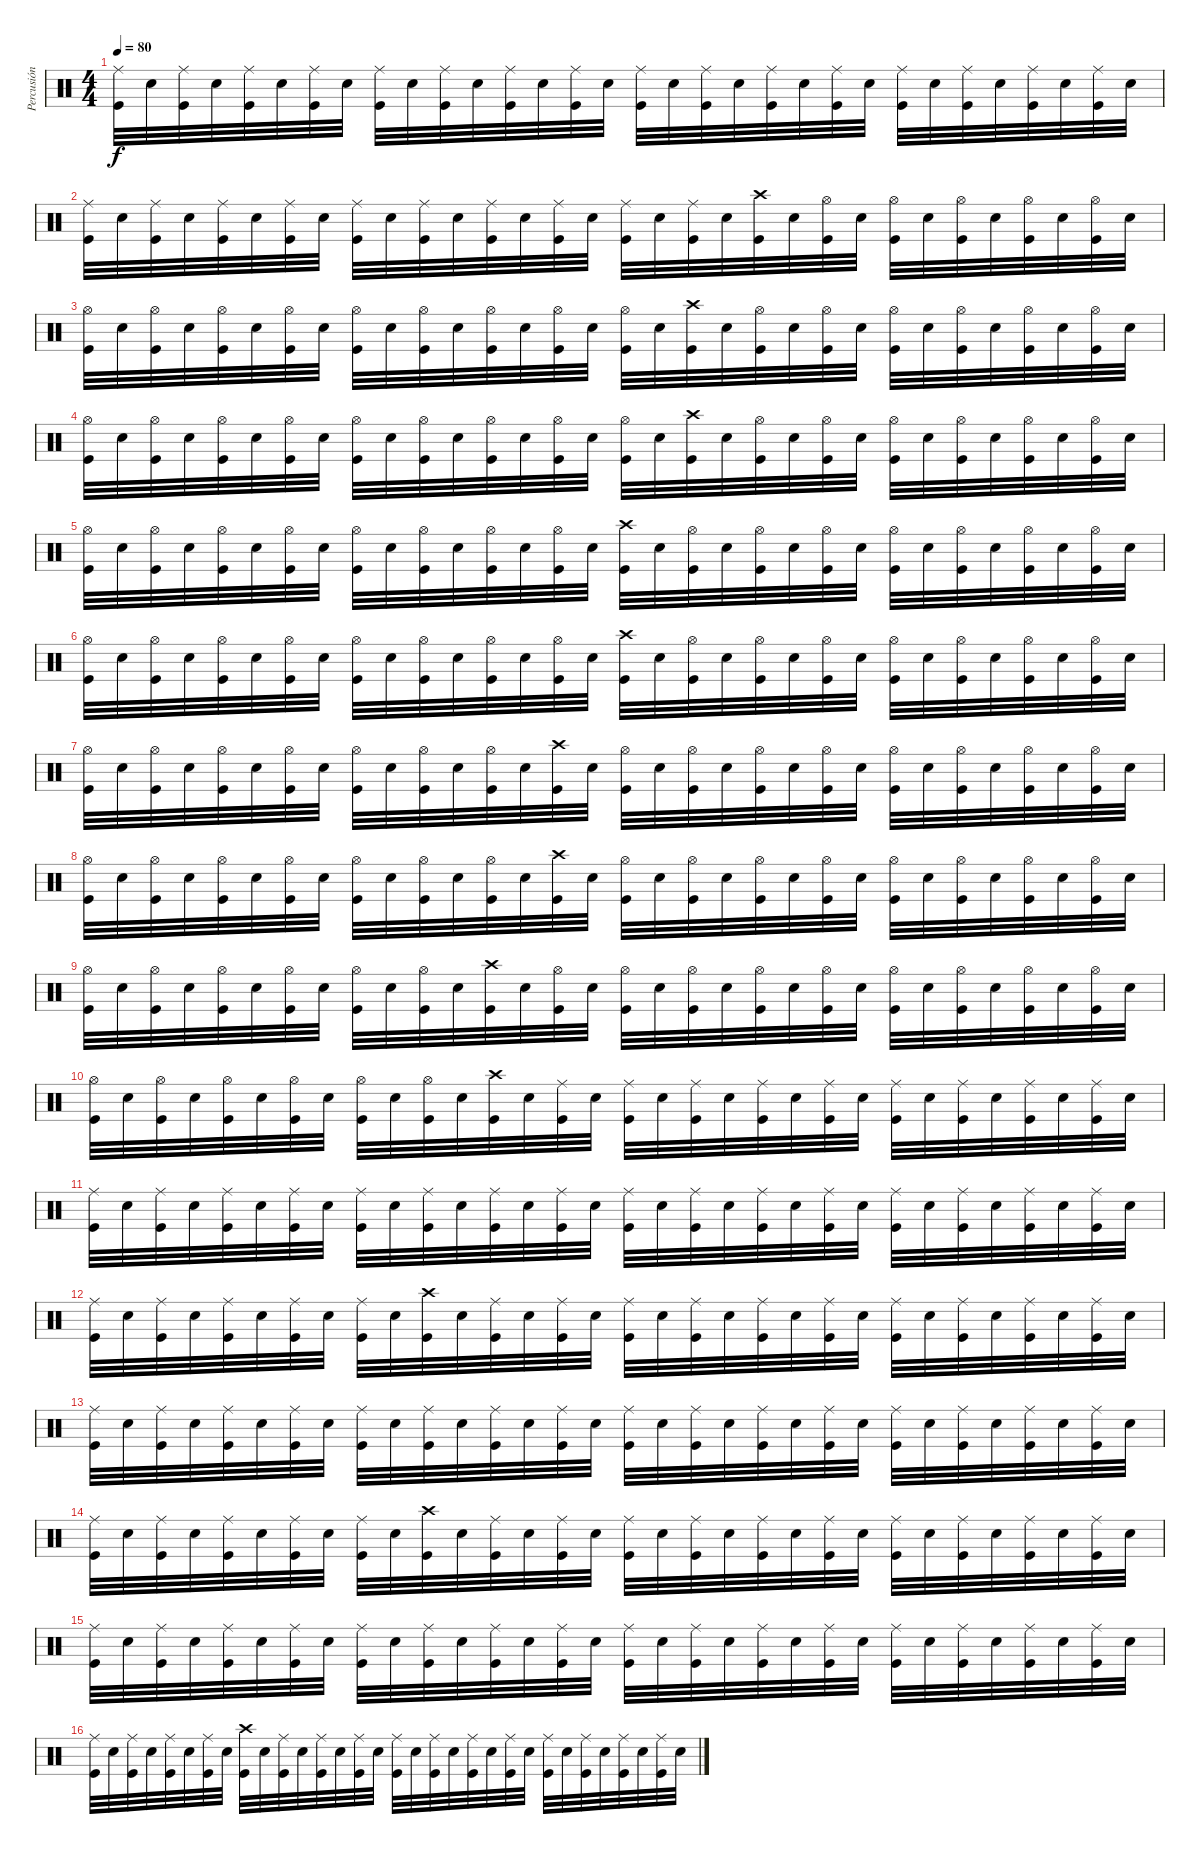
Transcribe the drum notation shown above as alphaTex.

\track ("Percusión" "Percusión") {instrument percussion}
\staff {score}
\articulation defaults
\ts (4 4)
\tempo 80
\clef neutral
\ks c
("Ride (middle)" "Kick (hit)").32{dy f} "Electric Snare (hit)".32 ("Ride (middle)" "Kick (hit)").32 "Electric Snare (hit)".32 ("Ride (middle)" "Kick (hit)").32 "Electric Snare (hit)".32 ("Ride (middle)" "Kick (hit)").32 "Electric Snare (hit)".32 ("Ride (middle)" "Kick (hit)").32 "Electric Snare (hit)".32 ("Ride (middle)" "Kick (hit)").32 "Electric Snare (hit)".32 ("Ride (middle)" "Kick (hit)").32 "Electric Snare (hit)".32 ("Ride (middle)" "Kick (hit)").32 "Electric Snare (hit)".32 ("Ride (middle)" "Kick (hit)").32 "Electric Snare (hit)".32 ("Ride (middle)" "Kick (hit)").32 "Electric Snare (hit)".32 ("Ride (middle)" "Kick (hit)").32 "Electric Snare (hit)".32 ("Ride (middle)" "Kick (hit)").32 "Electric Snare (hit)".32 ("Ride (middle)" "Kick (hit)").32 "Electric Snare (hit)".32 ("Ride (middle)" "Kick (hit)").32 "Electric Snare (hit)".32 ("Ride (middle)" "Kick (hit)").32 "Electric Snare (hit)".32 ("Ride (middle)" "Kick (hit)").32 "Electric Snare (hit)".32 |
("Ride (middle)" "Kick (hit)").32 "Electric Snare (hit)".32 ("Ride (middle)" "Kick (hit)").32 "Electric Snare (hit)".32 ("Ride (middle)" "Kick (hit)").32 "Electric Snare (hit)".32 ("Ride (middle)" "Kick (hit)").32 "Electric Snare (hit)".32 ("Ride (middle)" "Kick (hit)").32 "Electric Snare (hit)".32 ("Ride (middle)" "Kick (hit)").32 "Electric Snare (hit)".32 ("Ride (middle)" "Kick (hit)").32 "Electric Snare (hit)".32 ("Ride (middle)" "Kick (hit)").32 "Electric Snare (hit)".32 ("Ride (middle)" "Kick (hit)").32 "Electric Snare (hit)".32 ("Ride (middle)" "Kick (hit)").32 "Electric Snare (hit)".32 ("Crash high (hit)" "Kick (hit)").32 "Electric Snare (hit)".32 ("Hi-Hat (open)" "Kick (hit)").32 "Electric Snare (hit)".32 ("Hi-Hat (open)" "Kick (hit)").32 "Electric Snare (hit)".32 ("Hi-Hat (open)" "Kick (hit)").32 "Electric Snare (hit)".32 ("Hi-Hat (open)" "Kick (hit)").32 "Electric Snare (hit)".32 ("Hi-Hat (open)" "Kick (hit)").32 "Electric Snare (hit)".32 |
("Hi-Hat (open)" "Kick (hit)").32 "Electric Snare (hit)".32 ("Hi-Hat (open)" "Kick (hit)").32 "Electric Snare (hit)".32 ("Hi-Hat (open)" "Kick (hit)").32 "Electric Snare (hit)".32 ("Hi-Hat (open)" "Kick (hit)").32 "Electric Snare (hit)".32 ("Hi-Hat (open)" "Kick (hit)").32 "Electric Snare (hit)".32 ("Hi-Hat (open)" "Kick (hit)").32 "Electric Snare (hit)".32 ("Hi-Hat (open)" "Kick (hit)").32 "Electric Snare (hit)".32 ("Hi-Hat (open)" "Kick (hit)").32 "Electric Snare (hit)".32 ("Hi-Hat (open)" "Kick (hit)").32 "Electric Snare (hit)".32 ("Crash high (hit)" "Kick (hit)").32 "Electric Snare (hit)".32 ("Hi-Hat (open)" "Kick (hit)").32 "Electric Snare (hit)".32 ("Hi-Hat (open)" "Kick (hit)").32 "Electric Snare (hit)".32 ("Hi-Hat (open)" "Kick (hit)").32 "Electric Snare (hit)".32 ("Hi-Hat (open)" "Kick (hit)").32 "Electric Snare (hit)".32 ("Hi-Hat (open)" "Kick (hit)").32 "Electric Snare (hit)".32 ("Hi-Hat (open)" "Kick (hit)").32 "Electric Snare (hit)".32 |
("Hi-Hat (open)" "Kick (hit)").32 "Electric Snare (hit)".32 ("Hi-Hat (open)" "Kick (hit)").32 "Electric Snare (hit)".32 ("Hi-Hat (open)" "Kick (hit)").32 "Electric Snare (hit)".32 ("Hi-Hat (open)" "Kick (hit)").32 "Electric Snare (hit)".32 ("Hi-Hat (open)" "Kick (hit)").32 "Electric Snare (hit)".32 ("Hi-Hat (open)" "Kick (hit)").32 "Electric Snare (hit)".32 ("Hi-Hat (open)" "Kick (hit)").32 "Electric Snare (hit)".32 ("Hi-Hat (open)" "Kick (hit)").32 "Electric Snare (hit)".32 ("Hi-Hat (open)" "Kick (hit)").32 "Electric Snare (hit)".32 ("Crash high (hit)" "Kick (hit)").32 "Electric Snare (hit)".32 ("Hi-Hat (open)" "Kick (hit)").32 "Electric Snare (hit)".32 ("Hi-Hat (open)" "Kick (hit)").32 "Electric Snare (hit)".32 ("Hi-Hat (open)" "Kick (hit)").32 "Electric Snare (hit)".32 ("Hi-Hat (open)" "Kick (hit)").32 "Electric Snare (hit)".32 ("Hi-Hat (open)" "Kick (hit)").32 "Electric Snare (hit)".32 ("Hi-Hat (open)" "Kick (hit)").32 "Electric Snare (hit)".32 |
("Hi-Hat (open)" "Kick (hit)").32 "Electric Snare (hit)".32 ("Hi-Hat (open)" "Kick (hit)").32 "Electric Snare (hit)".32 ("Hi-Hat (open)" "Kick (hit)").32 "Electric Snare (hit)".32 ("Hi-Hat (open)" "Kick (hit)").32 "Electric Snare (hit)".32 ("Hi-Hat (open)" "Kick (hit)").32 "Electric Snare (hit)".32 ("Hi-Hat (open)" "Kick (hit)").32 "Electric Snare (hit)".32 ("Hi-Hat (open)" "Kick (hit)").32 "Electric Snare (hit)".32 ("Hi-Hat (open)" "Kick (hit)").32 "Electric Snare (hit)".32 ("Crash high (hit)" "Kick (hit)").32 "Electric Snare (hit)".32 ("Hi-Hat (open)" "Kick (hit)").32 "Electric Snare (hit)".32 ("Hi-Hat (open)" "Kick (hit)").32 "Electric Snare (hit)".32 ("Hi-Hat (open)" "Kick (hit)").32 "Electric Snare (hit)".32 ("Hi-Hat (open)" "Kick (hit)").32 "Electric Snare (hit)".32 ("Hi-Hat (open)" "Kick (hit)").32 "Electric Snare (hit)".32 ("Hi-Hat (open)" "Kick (hit)").32 "Electric Snare (hit)".32 ("Hi-Hat (open)" "Kick (hit)").32 "Electric Snare (hit)".32 |
("Hi-Hat (open)" "Kick (hit)").32 "Electric Snare (hit)".32 ("Hi-Hat (open)" "Kick (hit)").32 "Electric Snare (hit)".32 ("Hi-Hat (open)" "Kick (hit)").32 "Electric Snare (hit)".32 ("Hi-Hat (open)" "Kick (hit)").32 "Electric Snare (hit)".32 ("Hi-Hat (open)" "Kick (hit)").32 "Electric Snare (hit)".32 ("Hi-Hat (open)" "Kick (hit)").32 "Electric Snare (hit)".32 ("Hi-Hat (open)" "Kick (hit)").32 "Electric Snare (hit)".32 ("Hi-Hat (open)" "Kick (hit)").32 "Electric Snare (hit)".32 ("Crash high (hit)" "Kick (hit)").32 "Electric Snare (hit)".32 ("Hi-Hat (open)" "Kick (hit)").32 "Electric Snare (hit)".32 ("Hi-Hat (open)" "Kick (hit)").32 "Electric Snare (hit)".32 ("Hi-Hat (open)" "Kick (hit)").32 "Electric Snare (hit)".32 ("Hi-Hat (open)" "Kick (hit)").32 "Electric Snare (hit)".32 ("Hi-Hat (open)" "Kick (hit)").32 "Electric Snare (hit)".32 ("Hi-Hat (open)" "Kick (hit)").32 "Electric Snare (hit)".32 ("Hi-Hat (open)" "Kick (hit)").32 "Electric Snare (hit)".32 |
("Hi-Hat (open)" "Kick (hit)").32 "Electric Snare (hit)".32 ("Hi-Hat (open)" "Kick (hit)").32 "Electric Snare (hit)".32 ("Hi-Hat (open)" "Kick (hit)").32 "Electric Snare (hit)".32 ("Hi-Hat (open)" "Kick (hit)").32 "Electric Snare (hit)".32 ("Hi-Hat (open)" "Kick (hit)").32 "Electric Snare (hit)".32 ("Hi-Hat (open)" "Kick (hit)").32 "Electric Snare (hit)".32 ("Hi-Hat (open)" "Kick (hit)").32 "Electric Snare (hit)".32 ("Crash high (hit)" "Kick (hit)").32 "Electric Snare (hit)".32 ("Hi-Hat (open)" "Kick (hit)").32 "Electric Snare (hit)".32 ("Hi-Hat (open)" "Kick (hit)").32 "Electric Snare (hit)".32 ("Hi-Hat (open)" "Kick (hit)").32 "Electric Snare (hit)".32 ("Hi-Hat (open)" "Kick (hit)").32 "Electric Snare (hit)".32 ("Hi-Hat (open)" "Kick (hit)").32 "Electric Snare (hit)".32 ("Hi-Hat (open)" "Kick (hit)").32 "Electric Snare (hit)".32 ("Hi-Hat (open)" "Kick (hit)").32 "Electric Snare (hit)".32 ("Hi-Hat (open)" "Kick (hit)").32 "Electric Snare (hit)".32 |
("Hi-Hat (open)" "Kick (hit)").32 "Electric Snare (hit)".32 ("Hi-Hat (open)" "Kick (hit)").32 "Electric Snare (hit)".32 ("Hi-Hat (open)" "Kick (hit)").32 "Electric Snare (hit)".32 ("Hi-Hat (open)" "Kick (hit)").32 "Electric Snare (hit)".32 ("Hi-Hat (open)" "Kick (hit)").32 "Electric Snare (hit)".32 ("Hi-Hat (open)" "Kick (hit)").32 "Electric Snare (hit)".32 ("Hi-Hat (open)" "Kick (hit)").32 "Electric Snare (hit)".32 ("Crash high (hit)" "Kick (hit)").32 "Electric Snare (hit)".32 ("Hi-Hat (open)" "Kick (hit)").32 "Electric Snare (hit)".32 ("Hi-Hat (open)" "Kick (hit)").32 "Electric Snare (hit)".32 ("Hi-Hat (open)" "Kick (hit)").32 "Electric Snare (hit)".32 ("Hi-Hat (open)" "Kick (hit)").32 "Electric Snare (hit)".32 ("Hi-Hat (open)" "Kick (hit)").32 "Electric Snare (hit)".32 ("Hi-Hat (open)" "Kick (hit)").32 "Electric Snare (hit)".32 ("Hi-Hat (open)" "Kick (hit)").32 "Electric Snare (hit)".32 ("Hi-Hat (open)" "Kick (hit)").32 "Electric Snare (hit)".32 |
("Hi-Hat (open)" "Kick (hit)").32 "Electric Snare (hit)".32 ("Hi-Hat (open)" "Kick (hit)").32 "Electric Snare (hit)".32 ("Hi-Hat (open)" "Kick (hit)").32 "Electric Snare (hit)".32 ("Hi-Hat (open)" "Kick (hit)").32 "Electric Snare (hit)".32 ("Hi-Hat (open)" "Kick (hit)").32 "Electric Snare (hit)".32 ("Hi-Hat (open)" "Kick (hit)").32 "Electric Snare (hit)".32 ("Crash high (hit)" "Kick (hit)").32 "Electric Snare (hit)".32 ("Hi-Hat (open)" "Kick (hit)").32 "Electric Snare (hit)".32 ("Hi-Hat (open)" "Kick (hit)").32 "Electric Snare (hit)".32 ("Hi-Hat (open)" "Kick (hit)").32 "Electric Snare (hit)".32 ("Hi-Hat (open)" "Kick (hit)").32 "Electric Snare (hit)".32 ("Hi-Hat (open)" "Kick (hit)").32 "Electric Snare (hit)".32 ("Hi-Hat (open)" "Kick (hit)").32 "Electric Snare (hit)".32 ("Hi-Hat (open)" "Kick (hit)").32 "Electric Snare (hit)".32 ("Hi-Hat (open)" "Kick (hit)").32 "Electric Snare (hit)".32 ("Hi-Hat (open)" "Kick (hit)").32 "Electric Snare (hit)".32 |
("Hi-Hat (open)" "Kick (hit)").32 "Electric Snare (hit)".32 ("Hi-Hat (open)" "Kick (hit)").32 "Electric Snare (hit)".32 ("Hi-Hat (open)" "Kick (hit)").32 "Electric Snare (hit)".32 ("Hi-Hat (open)" "Kick (hit)").32 "Electric Snare (hit)".32 ("Hi-Hat (open)" "Kick (hit)").32 "Electric Snare (hit)".32 ("Hi-Hat (open)" "Kick (hit)").32 "Electric Snare (hit)".32 ("Crash high (hit)" "Kick (hit)").32 "Electric Snare (hit)".32 ("Ride (middle)" "Kick (hit)").32 "Electric Snare (hit)".32 ("Ride (middle)" "Kick (hit)").32 "Electric Snare (hit)".32 ("Ride (middle)" "Kick (hit)").32 "Electric Snare (hit)".32 ("Ride (middle)" "Kick (hit)").32 "Electric Snare (hit)".32 ("Ride (middle)" "Kick (hit)").32 "Electric Snare (hit)".32 ("Ride (middle)" "Kick (hit)").32 "Electric Snare (hit)".32 ("Ride (middle)" "Kick (hit)").32 "Electric Snare (hit)".32 ("Ride (middle)" "Kick (hit)").32 "Electric Snare (hit)".32 ("Ride (middle)" "Kick (hit)").32 "Electric Snare (hit)".32 |
("Ride (middle)" "Kick (hit)").32 "Electric Snare (hit)".32 ("Ride (middle)" "Kick (hit)").32 "Electric Snare (hit)".32 ("Ride (middle)" "Kick (hit)").32 "Electric Snare (hit)".32 ("Ride (middle)" "Kick (hit)").32 "Electric Snare (hit)".32 ("Ride (middle)" "Kick (hit)").32 "Electric Snare (hit)".32 ("Ride (middle)" "Kick (hit)").32 "Electric Snare (hit)".32 ("Ride (middle)" "Kick (hit)").32 "Electric Snare (hit)".32 ("Ride (middle)" "Kick (hit)").32 "Electric Snare (hit)".32 ("Ride (middle)" "Kick (hit)").32 "Electric Snare (hit)".32 ("Ride (middle)" "Kick (hit)").32 "Electric Snare (hit)".32 ("Ride (middle)" "Kick (hit)").32 "Electric Snare (hit)".32 ("Ride (middle)" "Kick (hit)").32 "Electric Snare (hit)".32 ("Ride (middle)" "Kick (hit)").32 "Electric Snare (hit)".32 ("Ride (middle)" "Kick (hit)").32 "Electric Snare (hit)".32 ("Ride (middle)" "Kick (hit)").32 "Electric Snare (hit)".32 ("Ride (middle)" "Kick (hit)").32 "Electric Snare (hit)".32 |
("Ride (middle)" "Kick (hit)").32 "Electric Snare (hit)".32 ("Ride (middle)" "Kick (hit)").32 "Electric Snare (hit)".32 ("Ride (middle)" "Kick (hit)").32 "Electric Snare (hit)".32 ("Ride (middle)" "Kick (hit)").32 "Electric Snare (hit)".32 ("Ride (middle)" "Kick (hit)").32 "Electric Snare (hit)".32 ("Crash high (hit)" "Kick (hit)").32 "Electric Snare (hit)".32 ("Ride (middle)" "Kick (hit)").32 "Electric Snare (hit)".32 ("Ride (middle)" "Kick (hit)").32 "Electric Snare (hit)".32 ("Ride (middle)" "Kick (hit)").32 "Electric Snare (hit)".32 ("Ride (middle)" "Kick (hit)").32 "Electric Snare (hit)".32 ("Ride (middle)" "Kick (hit)").32 "Electric Snare (hit)".32 ("Ride (middle)" "Kick (hit)").32 "Electric Snare (hit)".32 ("Ride (middle)" "Kick (hit)").32 "Electric Snare (hit)".32 ("Ride (middle)" "Kick (hit)").32 "Electric Snare (hit)".32 ("Ride (middle)" "Kick (hit)").32 "Electric Snare (hit)".32 ("Ride (middle)" "Kick (hit)").32 "Electric Snare (hit)".32 |
("Ride (middle)" "Kick (hit)").32 "Electric Snare (hit)".32 ("Ride (middle)" "Kick (hit)").32 "Electric Snare (hit)".32 ("Ride (middle)" "Kick (hit)").32 "Electric Snare (hit)".32 ("Ride (middle)" "Kick (hit)").32 "Electric Snare (hit)".32 ("Ride (middle)" "Kick (hit)").32 "Electric Snare (hit)".32 ("Ride (middle)" "Kick (hit)").32 "Electric Snare (hit)".32 ("Ride (middle)" "Kick (hit)").32 "Electric Snare (hit)".32 ("Ride (middle)" "Kick (hit)").32 "Electric Snare (hit)".32 ("Ride (middle)" "Kick (hit)").32 "Electric Snare (hit)".32 ("Ride (middle)" "Kick (hit)").32 "Electric Snare (hit)".32 ("Ride (middle)" "Kick (hit)").32 "Electric Snare (hit)".32 ("Ride (middle)" "Kick (hit)").32 "Electric Snare (hit)".32 ("Ride (middle)" "Kick (hit)").32 "Electric Snare (hit)".32 ("Ride (middle)" "Kick (hit)").32 "Electric Snare (hit)".32 ("Ride (middle)" "Kick (hit)").32 "Electric Snare (hit)".32 ("Ride (middle)" "Kick (hit)").32 "Electric Snare (hit)".32 |
("Ride (middle)" "Kick (hit)").32 "Electric Snare (hit)".32 ("Ride (middle)" "Kick (hit)").32 "Electric Snare (hit)".32 ("Ride (middle)" "Kick (hit)").32 "Electric Snare (hit)".32 ("Ride (middle)" "Kick (hit)").32 "Electric Snare (hit)".32 ("Ride (middle)" "Kick (hit)").32 "Electric Snare (hit)".32 ("Crash high (hit)" "Kick (hit)").32 "Electric Snare (hit)".32 ("Ride (middle)" "Kick (hit)").32 "Electric Snare (hit)".32 ("Ride (middle)" "Kick (hit)").32 "Electric Snare (hit)".32 ("Ride (middle)" "Kick (hit)").32 "Electric Snare (hit)".32 ("Ride (middle)" "Kick (hit)").32 "Electric Snare (hit)".32 ("Ride (middle)" "Kick (hit)").32 "Electric Snare (hit)".32 ("Ride (middle)" "Kick (hit)").32 "Electric Snare (hit)".32 ("Ride (middle)" "Kick (hit)").32 "Electric Snare (hit)".32 ("Ride (middle)" "Kick (hit)").32 "Electric Snare (hit)".32 ("Ride (middle)" "Kick (hit)").32 "Electric Snare (hit)".32 ("Ride (middle)" "Kick (hit)").32 "Electric Snare (hit)".32 |
("Ride (middle)" "Kick (hit)").32 "Electric Snare (hit)".32 ("Ride (middle)" "Kick (hit)").32 "Electric Snare (hit)".32 ("Ride (middle)" "Kick (hit)").32 "Electric Snare (hit)".32 ("Ride (middle)" "Kick (hit)").32 "Electric Snare (hit)".32 ("Ride (middle)" "Kick (hit)").32 "Electric Snare (hit)".32 ("Ride (middle)" "Kick (hit)").32 "Electric Snare (hit)".32 ("Ride (middle)" "Kick (hit)").32 "Electric Snare (hit)".32 ("Ride (middle)" "Kick (hit)").32 "Electric Snare (hit)".32 ("Ride (middle)" "Kick (hit)").32 "Electric Snare (hit)".32 ("Ride (middle)" "Kick (hit)").32 "Electric Snare (hit)".32 ("Ride (middle)" "Kick (hit)").32 "Electric Snare (hit)".32 ("Ride (middle)" "Kick (hit)").32 "Electric Snare (hit)".32 ("Ride (middle)" "Kick (hit)").32 "Electric Snare (hit)".32 ("Ride (middle)" "Kick (hit)").32 "Electric Snare (hit)".32 ("Ride (middle)" "Kick (hit)").32 "Electric Snare (hit)".32 ("Ride (middle)" "Kick (hit)").32 "Electric Snare (hit)".32 |
("Ride (middle)" "Kick (hit)").32 "Electric Snare (hit)".32 ("Ride (middle)" "Kick (hit)").32 "Electric Snare (hit)".32 ("Ride (middle)" "Kick (hit)").32 "Electric Snare (hit)".32 ("Ride (middle)" "Kick (hit)").32 "Electric Snare (hit)".32 ("Crash high (hit)" "Kick (hit)").32 "Electric Snare (hit)".32 ("Ride (middle)" "Kick (hit)").32 "Electric Snare (hit)".32 ("Ride (middle)" "Kick (hit)").32 "Electric Snare (hit)".32 ("Ride (middle)" "Kick (hit)").32 "Electric Snare (hit)".32 ("Ride (middle)" "Kick (hit)").32 "Electric Snare (hit)".32 ("Ride (middle)" "Kick (hit)").32 "Electric Snare (hit)".32 ("Ride (middle)" "Kick (hit)").32 "Electric Snare (hit)".32 ("Ride (middle)" "Kick (hit)").32 "Electric Snare (hit)".32 ("Ride (middle)" "Kick (hit)").32 "Electric Snare (hit)".32 ("Ride (middle)" "Kick (hit)").32 "Electric Snare (hit)".32 ("Ride (middle)" "Kick (hit)").32 "Electric Snare (hit)".32 ("Ride (middle)" "Kick (hit)").32 "Electric Snare (hit)".32
